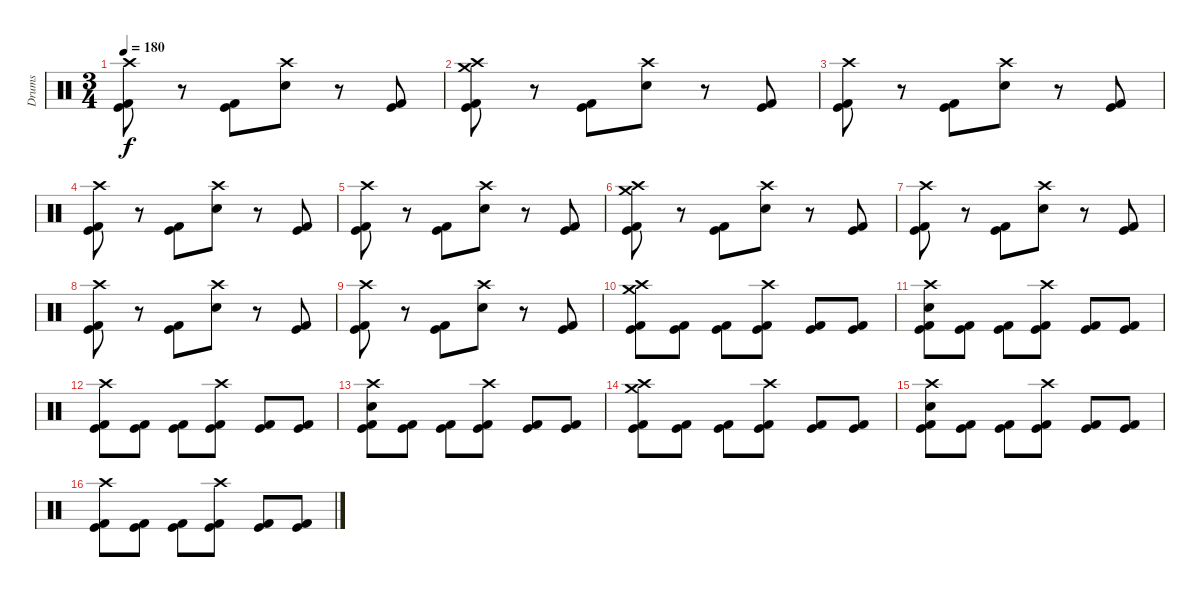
\track ("Drums" "Drums") {instrument percussion}
\staff {score}
\articulation defaults
\ts (3 4)
\tempo 180
\clef neutral
\ks c
("Crash high (hit)" "Kick (hit)" "Kick (hit) 2").8{dy f} r.8 ("Kick (hit)" "Kick (hit) 2").8 ("Crash high (hit)" "Snare (hit) 2").8 r.8 ("Kick (hit)" "Kick (hit) 2").8 |
("Crash medium (hit)" "Crash high (hit)" "Kick (hit)" "Kick (hit) 2").8 r.8 ("Kick (hit)" "Kick (hit) 2").8 ("Crash high (hit)" "Snare (hit) 2").8 r.8 ("Kick (hit)" "Kick (hit) 2").8 |
("Crash high (hit)" "Kick (hit)" "Kick (hit) 2").8 r.8 ("Kick (hit)" "Kick (hit) 2").8 ("Crash high (hit)" "Snare (hit) 2").8 r.8 ("Kick (hit)" "Kick (hit) 2").8 |
("Crash high (hit)" "Kick (hit)" "Kick (hit) 2").8 r.8 ("Kick (hit)" "Kick (hit) 2").8 ("Crash high (hit)" "Snare (hit) 2").8 r.8 ("Kick (hit)" "Kick (hit) 2").8 |
("Crash high (hit)" "Kick (hit)" "Kick (hit) 2").8 r.8 ("Kick (hit)" "Kick (hit) 2").8 ("Crash high (hit)" "Snare (hit) 2").8 r.8 ("Kick (hit)" "Kick (hit) 2").8 |
("Crash medium (hit)" "Crash high (hit)" "Kick (hit)" "Kick (hit) 2").8 r.8 ("Kick (hit)" "Kick (hit) 2").8 ("Crash high (hit)" "Snare (hit) 2").8 r.8 ("Kick (hit)" "Kick (hit) 2").8 |
("Crash high (hit)" "Kick (hit)" "Kick (hit) 2").8 r.8 ("Kick (hit)" "Kick (hit) 2").8 ("Crash high (hit)" "Snare (hit) 2").8 r.8 ("Kick (hit)" "Kick (hit) 2").8 |
("Crash high (hit)" "Kick (hit)" "Kick (hit) 2").8 r.8 ("Kick (hit)" "Kick (hit) 2").8 ("Crash high (hit)" "Snare (hit) 2").8 r.8 ("Kick (hit)" "Kick (hit) 2").8 |
("Crash high (hit)" "Kick (hit)" "Kick (hit) 2").8 r.8 ("Kick (hit)" "Kick (hit) 2").8 ("Crash high (hit)" "Snare (hit) 2").8 r.8 ("Kick (hit)" "Kick (hit) 2").8 |
("Crash medium (hit)" "Crash high (hit)" "Kick (hit)" "Kick (hit) 2").8 ("Kick (hit)" "Kick (hit) 2").8 ("Kick (hit)" "Kick (hit) 2").8 ("Crash high (hit)" "Kick (hit)" "Kick (hit) 2").8 ("Kick (hit)" "Kick (hit) 2").8 ("Kick (hit)" "Kick (hit) 2").8 |
("Crash high (hit)" "Snare (hit) 2" "Kick (hit)" "Kick (hit) 2").8 ("Kick (hit)" "Kick (hit) 2").8 ("Kick (hit)" "Kick (hit) 2").8 ("Crash high (hit)" "Kick (hit)" "Kick (hit) 2").8 ("Kick (hit)" "Kick (hit) 2").8 ("Kick (hit)" "Kick (hit) 2").8 |
("Crash high (hit)" "Kick (hit)" "Kick (hit) 2").8 ("Kick (hit)" "Kick (hit) 2").8 ("Kick (hit)" "Kick (hit) 2").8 ("Crash high (hit)" "Kick (hit)" "Kick (hit) 2").8 ("Kick (hit)" "Kick (hit) 2").8 ("Kick (hit)" "Kick (hit) 2").8 |
("Crash high (hit)" "Snare (hit) 2" "Kick (hit)" "Kick (hit) 2").8 ("Kick (hit)" "Kick (hit) 2").8 ("Kick (hit)" "Kick (hit) 2").8 ("Crash high (hit)" "Kick (hit)" "Kick (hit) 2").8 ("Kick (hit)" "Kick (hit) 2").8 ("Kick (hit)" "Kick (hit) 2").8 |
("Crash medium (hit)" "Crash high (hit)" "Kick (hit)" "Kick (hit) 2").8 ("Kick (hit)" "Kick (hit) 2").8 ("Kick (hit)" "Kick (hit) 2").8 ("Crash high (hit)" "Kick (hit)" "Kick (hit) 2").8 ("Kick (hit)" "Kick (hit) 2").8 ("Kick (hit)" "Kick (hit) 2").8 |
("Crash high (hit)" "Snare (hit) 2" "Kick (hit)" "Kick (hit) 2").8 ("Kick (hit)" "Kick (hit) 2").8 ("Kick (hit)" "Kick (hit) 2").8 ("Crash high (hit)" "Kick (hit)" "Kick (hit) 2").8 ("Kick (hit)" "Kick (hit) 2").8 ("Kick (hit)" "Kick (hit) 2").8 |
("Crash high (hit)" "Kick (hit)" "Kick (hit) 2").8 ("Kick (hit)" "Kick (hit) 2").8 ("Kick (hit)" "Kick (hit) 2").8 ("Crash high (hit)" "Kick (hit)" "Kick (hit) 2").8 ("Kick (hit)" "Kick (hit) 2").8 ("Kick (hit)" "Kick (hit) 2").8
